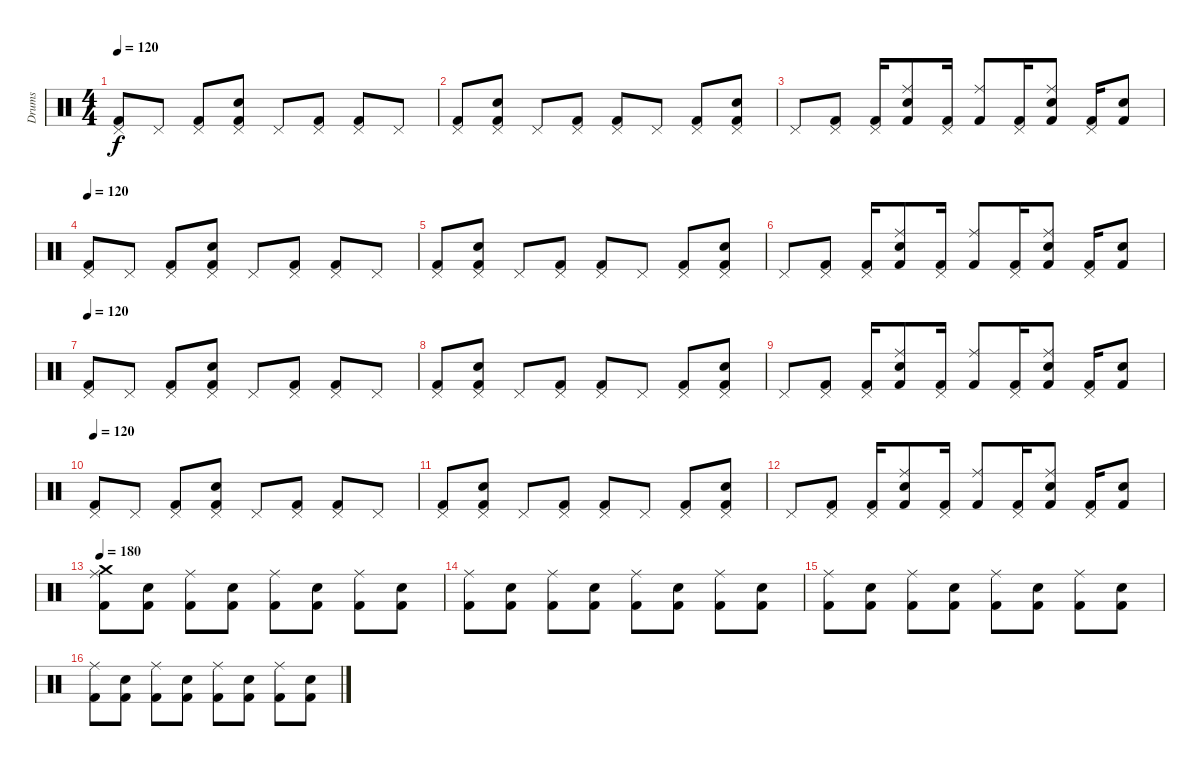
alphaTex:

\track ("Drums" "Drums") {instrument percussion}
\staff {score}
\articulation defaults
\ts (4 4)
\tempo 120
\clef neutral
\ks c
("Pedal Hi-Hat (hit)" "Kick (hit) 2").8{dy f} "Pedal Hi-Hat (hit)".8 ("Pedal Hi-Hat (hit)" "Kick (hit) 2").8 ("Pedal Hi-Hat (hit)" "Kick (hit) 2" "Electric Snare (hit)").8 "Pedal Hi-Hat (hit)".8 ("Pedal Hi-Hat (hit)" "Kick (hit) 2").8 ("Pedal Hi-Hat (hit)" "Kick (hit) 2").8 "Pedal Hi-Hat (hit)".8 |
("Pedal Hi-Hat (hit)" "Kick (hit) 2").8 ("Pedal Hi-Hat (hit)" "Kick (hit) 2" "Electric Snare (hit)").8 "Pedal Hi-Hat (hit)".8 ("Pedal Hi-Hat (hit)" "Kick (hit) 2").8 ("Pedal Hi-Hat (hit)" "Kick (hit) 2").8 "Pedal Hi-Hat (hit)".8 ("Pedal Hi-Hat (hit)" "Kick (hit) 2").8 ("Pedal Hi-Hat (hit)" "Kick (hit) 2" "Electric Snare (hit)").8 |
"Pedal Hi-Hat (hit)".8 ("Pedal Hi-Hat (hit)" "Kick (hit) 2").8 ("Pedal Hi-Hat (hit)" "Kick (hit) 2").16 ("Ride (middle)" "Kick (hit) 2" "Electric Snare (hit)").8 ("Pedal Hi-Hat (hit)" "Kick (hit) 2").16 ("Ride (middle)" "Kick (hit) 2").8 ("Pedal Hi-Hat (hit)" "Kick (hit) 2").16 ("Ride (middle)" "Kick (hit) 2" "Electric Snare (hit)").8 ("Pedal Hi-Hat (hit)" "Kick (hit) 2").16 ("Kick (hit) 2" "Electric Snare (hit)").8 |
\tempo 120
("Pedal Hi-Hat (hit)" "Kick (hit) 2").8 "Pedal Hi-Hat (hit)".8 ("Pedal Hi-Hat (hit)" "Kick (hit) 2").8 ("Pedal Hi-Hat (hit)" "Kick (hit) 2" "Electric Snare (hit)").8 "Pedal Hi-Hat (hit)".8 ("Pedal Hi-Hat (hit)" "Kick (hit) 2").8 ("Pedal Hi-Hat (hit)" "Kick (hit) 2").8 "Pedal Hi-Hat (hit)".8 |
("Pedal Hi-Hat (hit)" "Kick (hit) 2").8 ("Pedal Hi-Hat (hit)" "Kick (hit) 2" "Electric Snare (hit)").8 "Pedal Hi-Hat (hit)".8 ("Pedal Hi-Hat (hit)" "Kick (hit) 2").8 ("Pedal Hi-Hat (hit)" "Kick (hit) 2").8 "Pedal Hi-Hat (hit)".8 ("Pedal Hi-Hat (hit)" "Kick (hit) 2").8 ("Pedal Hi-Hat (hit)" "Kick (hit) 2" "Electric Snare (hit)").8 |
"Pedal Hi-Hat (hit)".8 ("Pedal Hi-Hat (hit)" "Kick (hit) 2").8 ("Pedal Hi-Hat (hit)" "Kick (hit) 2").16 ("Ride (middle)" "Kick (hit) 2" "Electric Snare (hit)").8 ("Pedal Hi-Hat (hit)" "Kick (hit) 2").16 ("Ride (middle)" "Kick (hit) 2").8 ("Pedal Hi-Hat (hit)" "Kick (hit) 2").16 ("Ride (middle)" "Kick (hit) 2" "Electric Snare (hit)").8 ("Pedal Hi-Hat (hit)" "Kick (hit) 2").16 ("Kick (hit) 2" "Electric Snare (hit)").8 |
\tempo 120
("Pedal Hi-Hat (hit)" "Kick (hit) 2").8 "Pedal Hi-Hat (hit)".8 ("Pedal Hi-Hat (hit)" "Kick (hit) 2").8 ("Pedal Hi-Hat (hit)" "Kick (hit) 2" "Electric Snare (hit)").8 "Pedal Hi-Hat (hit)".8 ("Pedal Hi-Hat (hit)" "Kick (hit) 2").8 ("Pedal Hi-Hat (hit)" "Kick (hit) 2").8 "Pedal Hi-Hat (hit)".8 |
("Pedal Hi-Hat (hit)" "Kick (hit) 2").8 ("Pedal Hi-Hat (hit)" "Kick (hit) 2" "Electric Snare (hit)").8 "Pedal Hi-Hat (hit)".8 ("Pedal Hi-Hat (hit)" "Kick (hit) 2").8 ("Pedal Hi-Hat (hit)" "Kick (hit) 2").8 "Pedal Hi-Hat (hit)".8 ("Pedal Hi-Hat (hit)" "Kick (hit) 2").8 ("Pedal Hi-Hat (hit)" "Kick (hit) 2" "Electric Snare (hit)").8 |
"Pedal Hi-Hat (hit)".8 ("Pedal Hi-Hat (hit)" "Kick (hit) 2").8 ("Pedal Hi-Hat (hit)" "Kick (hit) 2").16 ("Ride (middle)" "Kick (hit) 2" "Electric Snare (hit)").8 ("Pedal Hi-Hat (hit)" "Kick (hit) 2").16 ("Ride (middle)" "Kick (hit) 2").8 ("Pedal Hi-Hat (hit)" "Kick (hit) 2").16 ("Ride (middle)" "Kick (hit) 2" "Electric Snare (hit)").8 ("Pedal Hi-Hat (hit)" "Kick (hit) 2").16 ("Kick (hit) 2" "Electric Snare (hit)").8 |
\tempo 120
("Pedal Hi-Hat (hit)" "Kick (hit) 2").8 "Pedal Hi-Hat (hit)".8 ("Pedal Hi-Hat (hit)" "Kick (hit) 2").8 ("Pedal Hi-Hat (hit)" "Kick (hit) 2" "Electric Snare (hit)").8 "Pedal Hi-Hat (hit)".8 ("Pedal Hi-Hat (hit)" "Kick (hit) 2").8 ("Pedal Hi-Hat (hit)" "Kick (hit) 2").8 "Pedal Hi-Hat (hit)".8 |
("Pedal Hi-Hat (hit)" "Kick (hit) 2").8 ("Pedal Hi-Hat (hit)" "Kick (hit) 2" "Electric Snare (hit)").8 "Pedal Hi-Hat (hit)".8 ("Pedal Hi-Hat (hit)" "Kick (hit) 2").8 ("Pedal Hi-Hat (hit)" "Kick (hit) 2").8 "Pedal Hi-Hat (hit)".8 ("Pedal Hi-Hat (hit)" "Kick (hit) 2").8 ("Pedal Hi-Hat (hit)" "Kick (hit) 2" "Electric Snare (hit)").8 |
"Pedal Hi-Hat (hit)".8 ("Pedal Hi-Hat (hit)" "Kick (hit) 2").8 ("Pedal Hi-Hat (hit)" "Kick (hit) 2").16 ("Ride (middle)" "Kick (hit) 2" "Electric Snare (hit)").8 ("Pedal Hi-Hat (hit)" "Kick (hit) 2").16 ("Ride (middle)" "Kick (hit) 2").8 ("Pedal Hi-Hat (hit)" "Kick (hit) 2").16 ("Ride (middle)" "Kick (hit) 2" "Electric Snare (hit)").8 ("Pedal Hi-Hat (hit)" "Kick (hit) 2").16 ("Kick (hit) 2" "Electric Snare (hit)").8 |
\tempo 180
("Crash medium (hit)" "Ride (middle)" "Kick (hit) 2").8 ("Kick (hit) 2" "Electric Snare (hit)").8 ("Ride (middle)" "Kick (hit) 2").8 ("Kick (hit) 2" "Electric Snare (hit)").8 ("Ride (middle)" "Kick (hit) 2").8 ("Kick (hit) 2" "Electric Snare (hit)").8 ("Ride (middle)" "Kick (hit) 2").8 ("Kick (hit) 2" "Electric Snare (hit)").8 |
("Ride (middle)" "Kick (hit) 2").8 ("Kick (hit) 2" "Electric Snare (hit)").8 ("Ride (middle)" "Kick (hit) 2").8 ("Kick (hit) 2" "Electric Snare (hit)").8 ("Ride (middle)" "Kick (hit) 2").8 ("Kick (hit) 2" "Electric Snare (hit)").8 ("Ride (middle)" "Kick (hit) 2").8 ("Kick (hit) 2" "Electric Snare (hit)").8 |
("Ride (middle)" "Kick (hit) 2").8 ("Kick (hit) 2" "Electric Snare (hit)").8 ("Ride (middle)" "Kick (hit) 2").8 ("Kick (hit) 2" "Electric Snare (hit)").8 ("Ride (middle)" "Kick (hit) 2").8 ("Kick (hit) 2" "Electric Snare (hit)").8 ("Ride (middle)" "Kick (hit) 2").8 ("Kick (hit) 2" "Electric Snare (hit)").8 |
("Ride (middle)" "Kick (hit) 2").8 ("Kick (hit) 2" "Electric Snare (hit)").8 ("Ride (middle)" "Kick (hit) 2").8 ("Kick (hit) 2" "Electric Snare (hit)").8 ("Ride (middle)" "Kick (hit) 2").8 ("Kick (hit) 2" "Electric Snare (hit)").8 ("Ride (middle)" "Kick (hit) 2").8 ("Kick (hit) 2" "Electric Snare (hit)").8
